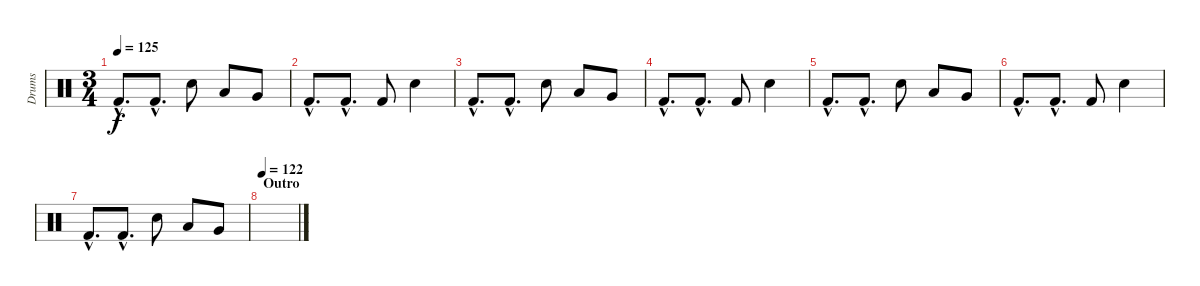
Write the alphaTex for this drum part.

\track ("Drums" "Drums") {instrument percussion}
\staff {score}
\articulation defaults
\ts (3 4)
\tempo 125
\clef neutral
\ks c "Kick (hit) 2"{hac}.8{d dy f} "Kick (hit) 2"{hac}.8{d} "Electric Snare (hit)".8 "Low Tom (hit)".8 "Very Low Tom (hit)".8
|
"Kick (hit) 2"{hac}.8{d} "Kick (hit) 2"{hac}.8{d} "Kick (hit) 2".8 "Electric Snare (hit)".4 |
"Kick (hit) 2"{hac}.8{d} "Kick (hit) 2"{hac}.8{d} "Electric Snare (hit)".8 "Low Tom (hit)".8 "Very Low Tom (hit)".8 |
"Kick (hit) 2"{hac}.8{d} "Kick (hit) 2"{hac}.8{d} "Kick (hit) 2".8 "Electric Snare (hit)".4 |
"Kick (hit) 2"{hac}.8{d} "Kick (hit) 2"{hac}.8{d} "Electric Snare (hit)".8 "Low Tom (hit)".8 "Very Low Tom (hit)".8 |
"Kick (hit) 2"{hac}.8{d} "Kick (hit) 2"{hac}.8{d} "Kick (hit) 2".8 "Electric Snare (hit)".4 |
"Kick (hit) 2"{hac}.8{d} "Kick (hit) 2"{hac}.8{d} "Electric Snare (hit)".8 "Low Tom (hit)".8 "Very Low Tom (hit)".8 |
\section ("" "Outro")
\tempo 122
